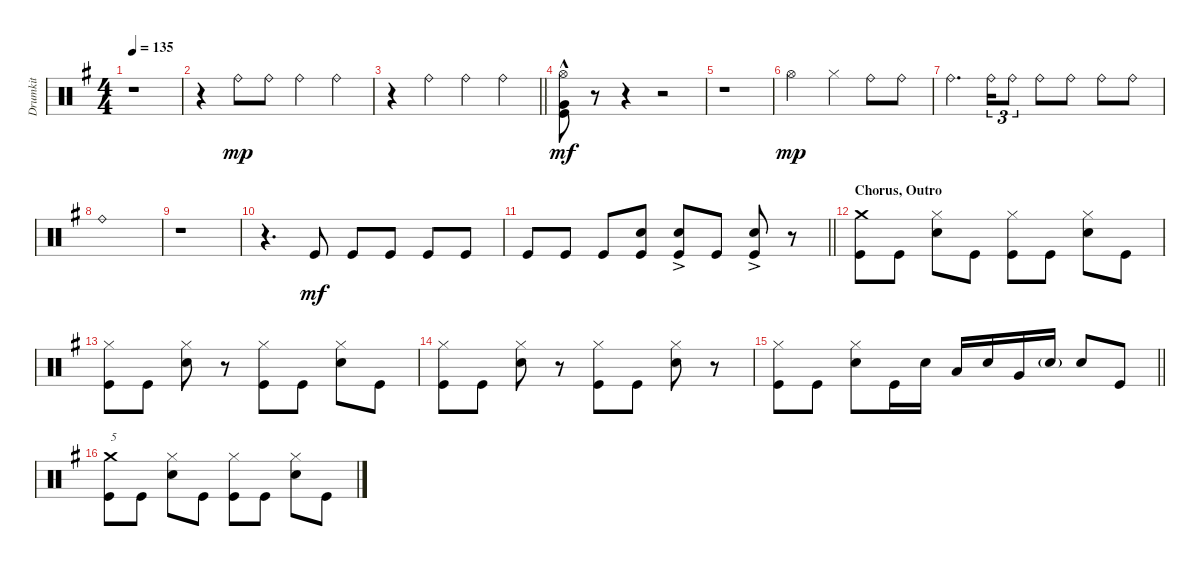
\track ("Drumkit" "Drumkit") {instrument percussion}
\staff {score}
\articulation defaults
\ts (4 4)
\tempo 135
\clef neutral
\ks g
r.1{dy mp} |
r.4 "Ride (bell)".8 "Ride (bell)".8 "Ride (bell)".4 "Ride (bell)".4 |
\barLineRight lightlight
r.4 "Ride (bell)".4 "Ride (bell)".4 "Ride (bell)".4 |
("Hi-Hat (open)"{hac} "Kick (hit)" "Very Low Tom (hit)").8{dy mf} r.8 r.4 r.2 |
r.1 |
"Hi-Hat (open)".2{dy mp} "Hi-Hat (closed)".4 "Ride (bell)".8 "Ride (bell)".8 |
"Ride (bell)".4{d} "Ride (bell)".16{tu (3 2)} "Ride (bell)".8{tu (3 2)} "Ride (bell)".8 "Ride (bell)".8 "Ride (bell)".8 "Ride (bell)".8 |
"Ride (bell)".1 |
r.1 |
r.4{d} "Kick (hit)".8{dy mf} "Kick (hit)".8 "Kick (hit)".8 "Kick (hit)".8 "Kick (hit)".8 |
\barLineRight lightlight "Kick (hit)".8 "Kick (hit)".8 "Kick (hit)".8
("Kick (hit)" "Snare (hit) 2").8 ("Kick (hit)" "Snare (hit) 2"{ac}).8 "Kick (hit)".8 ("Kick (hit)" "Snare (hit) 2"{ac}).8 r.8 |
\section ("" "Chorus, Outro")
("Kick (hit)" "Crash medium (hit)").8 "Kick (hit)".8 ("Snare (hit) 2" "Hi-Hat (closed)").8 "Kick (hit)".8 ("Kick (hit)" "Hi-Hat (closed)").8 "Kick (hit)".8 ("Snare (hit) 2" "Hi-Hat (closed)").8 "Kick (hit)".8 |
("Kick (hit)" "Hi-Hat (closed)").8 "Kick (hit)".8 ("Snare (hit) 2" "Hi-Hat (closed)").8 r.8 ("Kick (hit)" "Hi-Hat (closed)").8 "Kick (hit)".8 ("Snare (hit) 2" "Hi-Hat (closed)").8 "Kick (hit)".8 |
("Kick (hit)" "Hi-Hat (closed)").8 "Kick (hit)".8 ("Snare (hit) 2" "Hi-Hat (closed)").8 r.8 ("Kick (hit)" "Hi-Hat (closed)").8 "Kick (hit)".8 ("Snare (hit) 2" "Hi-Hat (closed)").8 r.8 |
\barLineRight lightlight
("Kick (hit)" "Hi-Hat (closed)").8 "Kick (hit)".8 ("Snare (hit) 2" "Hi-Hat (closed)").8 "Kick (hit)".16 "Snare (hit) 2".16 "Low Tom (hit)".16 "Snare (hit) 2".16 "Very Low Tom (hit)".16 "Snare (hit) 2"{g}.16 "Snare (hit) 2".8 "Kick (hit)".8 |
("Kick (hit)" "Crash medium (hit)").8{txt "5"} "Kick (hit)".8 ("Snare (hit) 2" "Hi-Hat (closed)").8 "Kick (hit)".8 ("Kick (hit)" "Hi-Hat (closed)").8 "Kick (hit)".8 ("Snare (hit) 2" "Hi-Hat (closed)").8 "Kick (hit)".8
